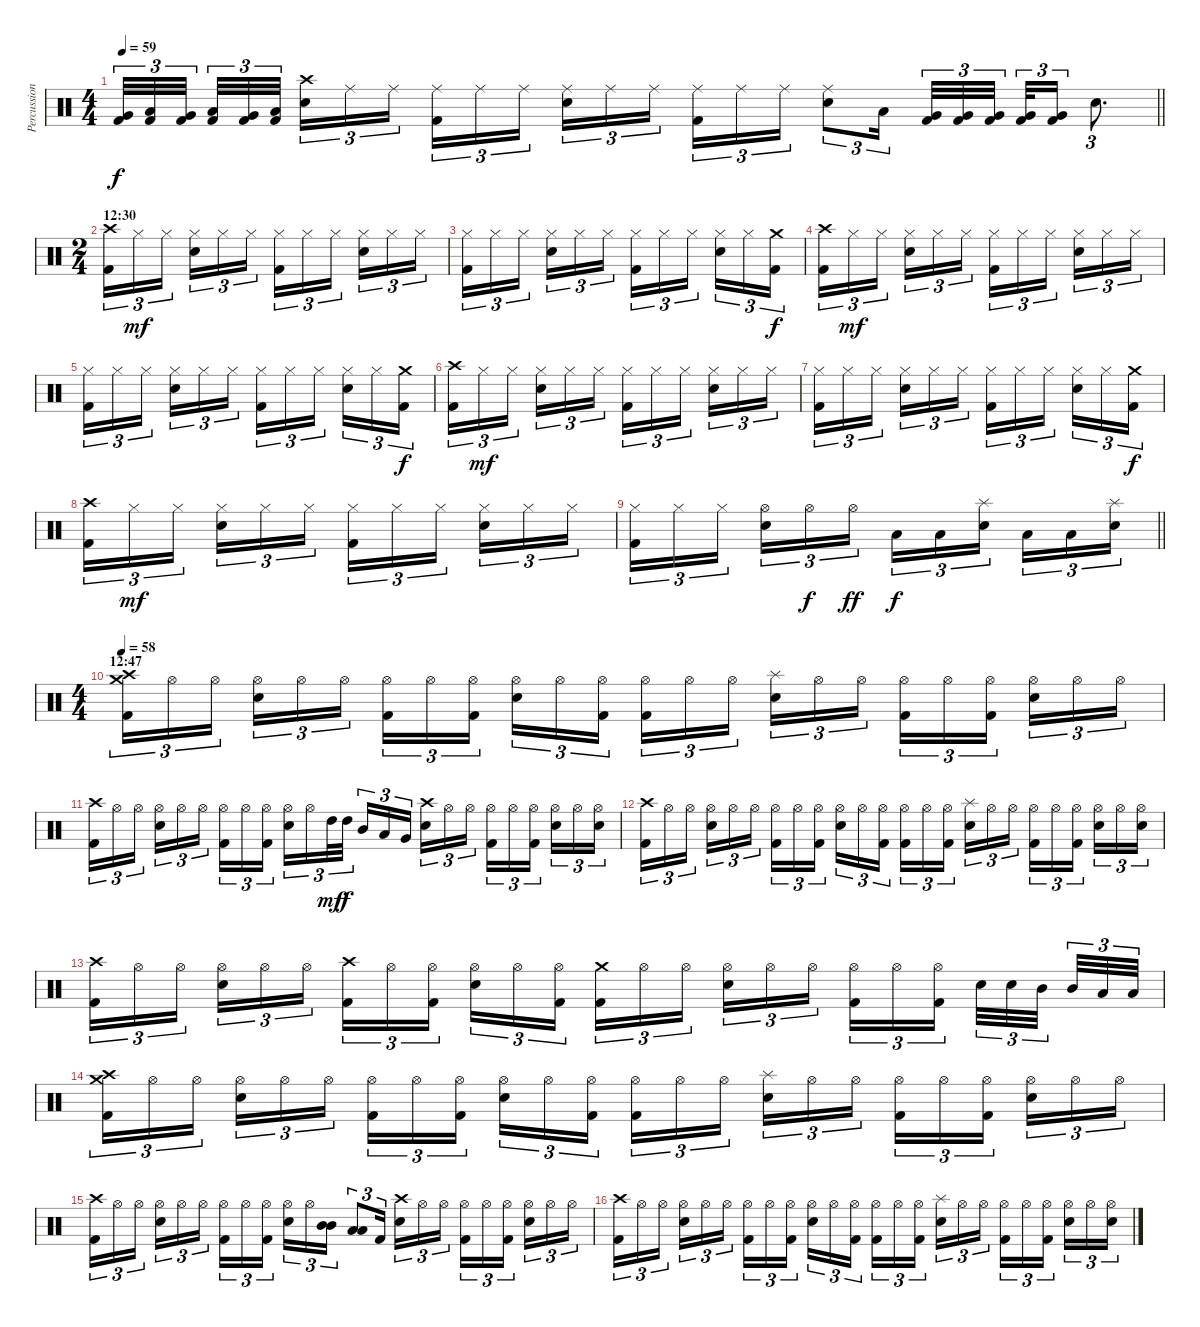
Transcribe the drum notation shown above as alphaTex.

\track ("Percussions" "Percussion") {instrument percussion}
\staff {score}
\articulation defaults
\ts (4 4)
\tempo 59
\clef neutral
\barLineRight lightlight
\ks c
("Very Low Tom (hit)" "Kick (hit) 2").32{tu (3 2) dy f} ("Low Floor Tom (hit)" "Kick (hit) 2").32{tu (3 2)} ("Very Low Tom (hit)" "Kick (hit) 2").32{tu (3 2) beam splitsecondary} ("Low Floor Tom (hit)" "Kick (hit) 2").32{tu (3 2)} ("Very Low Tom (hit)" "Kick (hit) 2").32{tu (3 2)} ("Low Floor Tom (hit)" "Kick (hit) 2").32{tu (3 2) beam splitsecondary} ("Crash high (hit)" "Snare (hit) 2").16{tu (3 2)} "Ride (middle)".16{tu (3 2)} "Ride (middle)".16{tu (3 2)} ("Ride (middle)" "Kick (hit) 2").16{tu (3 2)} "Ride (middle)".16{tu (3 2)} "Ride (middle)".16{tu (3 2) beam splitsecondary} ("Ride (middle)" "Snare (hit) 2").16{tu (3 2)} "Ride (middle)".16{tu (3 2)} "Ride (middle)".16{tu (3 2)} ("Ride (middle)" "Kick (hit) 2").16{tu (3 2)} "Ride (middle)".16{tu (3 2)} "Ride (middle)".16{tu (3 2)} ("Ride (middle)" "Snare (hit) 2").8{tu (3 2)} "Low Floor Tom (hit)".16{tu (3 2)} ("Very Low Tom (hit)" "Kick (hit) 2").32{tu (3 2)} ("Very Low Tom (hit)" "Kick (hit) 2").32{tu (3 2)} ("Very Low Tom (hit)" "Kick (hit) 2").32{tu (3 2) beam splitsecondary} ("Very Low Tom (hit)" "Kick (hit) 2").32{tu (3 2)} ("Very Low Tom (hit)" "Kick (hit) 2").16{tu (3 2)} "Snare (hit) 2".8{d tu (3 2)} |
\ts (2 4)
\section ("" "12:30")
("Crash high (hit)" "Kick (hit) 2").16{tu (3 2)} "Hi-Hat (closed)".16{tu (3 2) dy mf} "Hi-Hat (closed)".16{tu (3 2) beam splitsecondary} ("Hi-Hat (closed)" "Snare (hit) 2").16{tu (3 2)} "Hi-Hat (closed)".16{tu (3 2)} "Hi-Hat (closed)".16{tu (3 2)} ("Hi-Hat (closed)" "Kick (hit) 2").16{tu (3 2)} "Hi-Hat (closed)".16{tu (3 2)} "Hi-Hat (closed)".16{tu (3 2) beam splitsecondary} ("Hi-Hat (closed)" "Snare (hit) 2").16{tu (3 2)} "Hi-Hat (closed)".16{tu (3 2)} "Hi-Hat (closed)".16{tu (3 2)} |
("Hi-Hat (closed)" "Kick (hit) 2").16{tu (3 2)} "Hi-Hat (closed)".16{tu (3 2)} "Hi-Hat (closed)".16{tu (3 2) beam splitsecondary} ("Hi-Hat (closed)" "Snare (hit) 2").16{tu (3 2)} "Hi-Hat (closed)".16{tu (3 2)} "Hi-Hat (closed)".16{tu (3 2)} ("Hi-Hat (closed)" "Kick (hit) 2").16{tu (3 2)} "Hi-Hat (closed)".16{tu (3 2)} "Hi-Hat (closed)".16{tu (3 2) beam splitsecondary} ("Hi-Hat (closed)" "Snare (hit) 2").16{tu (3 2)} "Hi-Hat (closed)".16{tu (3 2)} ("Crash medium (hit)" "Kick (hit) 2").16{tu (3 2) dy f} |
("Crash high (hit)" "Kick (hit) 2").16{tu (3 2)} "Hi-Hat (closed)".16{tu (3 2) dy mf} "Hi-Hat (closed)".16{tu (3 2) beam splitsecondary} ("Hi-Hat (closed)" "Snare (hit) 2").16{tu (3 2)} "Hi-Hat (closed)".16{tu (3 2)} "Hi-Hat (closed)".16{tu (3 2)} ("Hi-Hat (closed)" "Kick (hit) 2").16{tu (3 2)} "Hi-Hat (closed)".16{tu (3 2)} "Hi-Hat (closed)".16{tu (3 2) beam splitsecondary} ("Hi-Hat (closed)" "Snare (hit) 2").16{tu (3 2)} "Hi-Hat (closed)".16{tu (3 2)} "Hi-Hat (closed)".16{tu (3 2)} |
("Hi-Hat (closed)" "Kick (hit) 2").16{tu (3 2)} "Hi-Hat (closed)".16{tu (3 2)} "Hi-Hat (closed)".16{tu (3 2) beam splitsecondary} ("Hi-Hat (closed)" "Snare (hit) 2").16{tu (3 2)} "Hi-Hat (closed)".16{tu (3 2)} "Hi-Hat (closed)".16{tu (3 2)} ("Hi-Hat (closed)" "Kick (hit) 2").16{tu (3 2)} "Hi-Hat (closed)".16{tu (3 2)} "Hi-Hat (closed)".16{tu (3 2) beam splitsecondary} ("Hi-Hat (closed)" "Snare (hit) 2").16{tu (3 2)} "Hi-Hat (closed)".16{tu (3 2)} ("Crash medium (hit)" "Kick (hit) 2").16{tu (3 2) dy f} |
("Crash high (hit)" "Kick (hit) 2").16{tu (3 2)} "Hi-Hat (closed)".16{tu (3 2) dy mf} "Hi-Hat (closed)".16{tu (3 2) beam splitsecondary} ("Hi-Hat (closed)" "Snare (hit) 2").16{tu (3 2)} "Hi-Hat (closed)".16{tu (3 2)} "Hi-Hat (closed)".16{tu (3 2)} ("Hi-Hat (closed)" "Kick (hit) 2").16{tu (3 2)} "Hi-Hat (closed)".16{tu (3 2)} "Hi-Hat (closed)".16{tu (3 2) beam splitsecondary} ("Hi-Hat (closed)" "Snare (hit) 2").16{tu (3 2)} "Hi-Hat (closed)".16{tu (3 2)} "Hi-Hat (closed)".16{tu (3 2)} |
("Hi-Hat (closed)" "Kick (hit) 2").16{tu (3 2)} "Hi-Hat (closed)".16{tu (3 2)} "Hi-Hat (closed)".16{tu (3 2) beam splitsecondary} ("Hi-Hat (closed)" "Snare (hit) 2").16{tu (3 2)} "Hi-Hat (closed)".16{tu (3 2)} "Hi-Hat (closed)".16{tu (3 2)} ("Hi-Hat (closed)" "Kick (hit) 2").16{tu (3 2)} "Hi-Hat (closed)".16{tu (3 2)} "Hi-Hat (closed)".16{tu (3 2) beam splitsecondary} ("Hi-Hat (closed)" "Snare (hit) 2").16{tu (3 2)} "Hi-Hat (closed)".16{tu (3 2)} ("Crash medium (hit)" "Kick (hit) 2").16{tu (3 2) dy f} |
("Crash high (hit)" "Kick (hit) 2").16{tu (3 2)} "Hi-Hat (closed)".16{tu (3 2) dy mf} "Hi-Hat (closed)".16{tu (3 2) beam splitsecondary} ("Hi-Hat (closed)" "Snare (hit) 2").16{tu (3 2)} "Hi-Hat (closed)".16{tu (3 2)} "Hi-Hat (closed)".16{tu (3 2)} ("Hi-Hat (closed)" "Kick (hit) 2").16{tu (3 2)} "Hi-Hat (closed)".16{tu (3 2)} "Hi-Hat (closed)".16{tu (3 2) beam splitsecondary} ("Hi-Hat (closed)" "Snare (hit) 2").16{tu (3 2)} "Hi-Hat (closed)".16{tu (3 2)} "Hi-Hat (closed)".16{tu (3 2)} |
\barLineRight lightlight
("Hi-Hat (closed)" "Kick (hit) 2").16{tu (3 2)} "Hi-Hat (closed)".16{tu (3 2)} "Hi-Hat (closed)".16{tu (3 2) beam splitsecondary} ("Hi-Hat (open)" "Snare (hit) 2").16{tu (3 2)} "Hi-Hat (open)".16{tu (3 2) dy f} "Hi-Hat (open)".16{tu (3 2) dy ff} "Low Floor Tom (hit)".16{tu (3 2) dy f} "Low Floor Tom (hit)".16{tu (3 2)} ("Splash (hit)" "Snare (hit) 2").16{tu (3 2) beam splitsecondary} "Low Floor Tom (hit)".16{tu (3 2)} "Low Floor Tom (hit)".16{tu (3 2)} ("Splash (hit)" "Snare (hit) 2").16{tu (3 2)} |
\ts (4 4)
\section ("" "12:47")
\tempo 58
("Crash medium (hit)" "Crash high (hit)" "Kick (hit) 2").16{tu (3 2)} "Hi-Hat (open)".16{tu (3 2)} "Hi-Hat (open)".16{tu (3 2) beam splitsecondary} ("Hi-Hat (open)" "Snare (hit) 2").16{tu (3 2)} "Hi-Hat (open)".16{tu (3 2)} "Hi-Hat (open)".16{tu (3 2)} ("Hi-Hat (open)" "Kick (hit) 2").16{tu (3 2)} "Hi-Hat (open)".16{tu (3 2)} ("Hi-Hat (open)" "Kick (hit) 2").16{tu (3 2) beam splitsecondary} ("Hi-Hat (open)" "Snare (hit) 2").16{tu (3 2)} "Hi-Hat (open)".16{tu (3 2)} ("Hi-Hat (open)" "Kick (hit) 2").16{tu (3 2)} ("Hi-Hat (open)" "Kick (hit) 2").16{tu (3 2)} "Hi-Hat (open)".16{tu (3 2)} "Hi-Hat (open)".16{tu (3 2) beam splitsecondary} ("Splash (hit)" "Snare (hit) 2").16{tu (3 2)} "Hi-Hat (open)".16{tu (3 2)} "Hi-Hat (open)".16{tu (3 2)} ("Hi-Hat (open)" "Kick (hit) 2").16{tu (3 2)} "Hi-Hat (open)".16{tu (3 2)} ("Hi-Hat (open)" "Kick (hit) 2").16{tu (3 2) beam splitsecondary} ("Hi-Hat (open)" "Snare (hit) 2").16{tu (3 2)} "Hi-Hat (open)".16{tu (3 2)} "Hi-Hat (open)".16{tu (3 2)} |
("Crash high (hit)" "Kick (hit) 2").16{tu (3 2)} "Hi-Hat (open)".16{tu (3 2)} "Hi-Hat (open)".16{tu (3 2) beam splitsecondary} ("Hi-Hat (open)" "Snare (hit) 2").16{tu (3 2)} "Hi-Hat (open)".16{tu (3 2)} "Hi-Hat (open)".16{tu (3 2)} ("Hi-Hat (open)" "Kick (hit) 2").16{tu (3 2)} "Hi-Hat (open)".16{tu (3 2)} ("Hi-Hat (open)" "Kick (hit) 2").16{tu (3 2) beam splitsecondary} ("Hi-Hat (open)" "Snare (hit) 2").16{tu (3 2)} "Hi-Hat (open)".16{tu (3 2)} "High Tom (hit)".32{tu (3 2) dy mf} "High Tom (hit)".32{tu (3 2) dy f} "Mid Tom (hit)".16{tu (3 2)} "Low Tom (hit)".16{tu (3 2)} "Very Low Tom (hit)".16{tu (3 2) beam splitsecondary} ("Crash high (hit)" "Snare (hit) 2").16{tu (3 2)} "Hi-Hat (open)".16{tu (3 2)} "Hi-Hat (open)".16{tu (3 2)} ("Hi-Hat (open)" "Kick (hit) 2").16{tu (3 2)} "Hi-Hat (open)".16{tu (3 2)} ("Hi-Hat (open)" "Kick (hit) 2").16{tu (3 2) beam splitsecondary} ("Hi-Hat (open)" "Snare (hit) 2").16{tu (3 2)} "Hi-Hat (open)".16{tu (3 2)} ("Hi-Hat (open)" "Snare (hit) 2").16{tu (3 2)} |
("Crash high (hit)" "Kick (hit) 2").16{tu (3 2)} "Hi-Hat (open)".16{tu (3 2)} "Hi-Hat (open)".16{tu (3 2) beam splitsecondary} ("Hi-Hat (open)" "Snare (hit) 2").16{tu (3 2)} "Hi-Hat (open)".16{tu (3 2)} "Hi-Hat (open)".16{tu (3 2)} ("Hi-Hat (open)" "Kick (hit) 2").16{tu (3 2)} "Hi-Hat (open)".16{tu (3 2)} ("Hi-Hat (open)" "Kick (hit) 2").16{tu (3 2) beam splitsecondary} ("Hi-Hat (open)" "Snare (hit) 2").16{tu (3 2)} "Hi-Hat (open)".16{tu (3 2)} ("Hi-Hat (open)" "Kick (hit) 2").16{tu (3 2)} ("Hi-Hat (open)" "Kick (hit) 2").16{tu (3 2)} "Hi-Hat (open)".16{tu (3 2)} ("Hi-Hat (open)" "Kick (hit) 2").16{tu (3 2) beam splitsecondary} ("Splash (hit)" "Snare (hit) 2").16{tu (3 2)} "Hi-Hat (open)".16{tu (3 2)} "Hi-Hat (open)".16{tu (3 2)} ("Hi-Hat (open)" "Kick (hit) 2").16{tu (3 2)} "Hi-Hat (open)".16{tu (3 2)} ("Hi-Hat (open)" "Kick (hit) 2").16{tu (3 2) beam splitsecondary} ("Hi-Hat (open)" "Snare (hit) 2").16{tu (3 2)} "Hi-Hat (open)".16{tu (3 2)} ("Hi-Hat (open)" "Snare (hit) 2").16{tu (3 2)} |
("Crash high (hit)" "Kick (hit) 2").16{tu (3 2)} "Hi-Hat (open)".16{tu (3 2)} "Hi-Hat (open)".16{tu (3 2) beam splitsecondary} ("Hi-Hat (open)" "Snare (hit) 2").16{tu (3 2)} "Hi-Hat (open)".16{tu (3 2)} "Hi-Hat (open)".16{tu (3 2)} ("Crash high (hit)" "Kick (hit) 2").16{tu (3 2)} "Hi-Hat (open)".16{tu (3 2)} ("Hi-Hat (open)" "Kick (hit) 2").16{tu (3 2) beam splitsecondary} ("Hi-Hat (open)" "Snare (hit) 2").16{tu (3 2)} "Hi-Hat (open)".16{tu (3 2)} ("Hi-Hat (open)" "Kick (hit) 2").16{tu (3 2)} ("Crash medium (hit)" "Kick (hit) 2").16{tu (3 2)} "Hi-Hat (open)".16{tu (3 2)} "Hi-Hat (open)".16{tu (3 2) beam splitsecondary} ("Hi-Hat (open)" "Snare (hit) 2").16{tu (3 2)} "Hi-Hat (open)".16{tu (3 2)} "Hi-Hat (open)".16{tu (3 2)} ("Hi-Hat (open)" "Kick (hit) 2").16{tu (3 2)} "Hi-Hat (open)".16{tu (3 2)} ("Hi-Hat (open)" "Kick (hit) 2").16{tu (3 2) beam splitsecondary} "Snare (hit) 2".32{tu (3 2)} "Snare (hit) 2".32{tu (3 2)} "Mid Tom (hit)".32{tu (3 2) beam splitsecondary} "Mid Tom (hit)".32{tu (3 2)} "Low Tom (hit)".32{tu (3 2)} "Low Tom (hit)".32{tu (3 2)} |
("Crash medium (hit)" "Crash high (hit)" "Kick (hit) 2").16{tu (3 2)} "Hi-Hat (open)".16{tu (3 2)} "Hi-Hat (open)".16{tu (3 2) beam splitsecondary} ("Hi-Hat (open)" "Snare (hit) 2").16{tu (3 2)} "Hi-Hat (open)".16{tu (3 2)} "Hi-Hat (open)".16{tu (3 2)} ("Hi-Hat (open)" "Kick (hit) 2").16{tu (3 2)} "Hi-Hat (open)".16{tu (3 2)} ("Hi-Hat (open)" "Kick (hit) 2").16{tu (3 2) beam splitsecondary} ("Hi-Hat (open)" "Snare (hit) 2").16{tu (3 2)} "Hi-Hat (open)".16{tu (3 2)} ("Hi-Hat (open)" "Kick (hit) 2").16{tu (3 2)} ("Hi-Hat (open)" "Kick (hit) 2").16{tu (3 2)} "Hi-Hat (open)".16{tu (3 2)} "Hi-Hat (open)".16{tu (3 2) beam splitsecondary} ("Splash (hit)" "Snare (hit) 2").16{tu (3 2)} "Hi-Hat (open)".16{tu (3 2)} "Hi-Hat (open)".16{tu (3 2)} ("Hi-Hat (open)" "Kick (hit) 2").16{tu (3 2)} "Hi-Hat (open)".16{tu (3 2)} ("Hi-Hat (open)" "Kick (hit) 2").16{tu (3 2) beam splitsecondary} ("Hi-Hat (open)" "Snare (hit) 2").16{tu (3 2)} "Hi-Hat (open)".16{tu (3 2)} "Hi-Hat (open)".16{tu (3 2)} |
("Crash high (hit)" "Kick (hit) 2").16{tu (3 2)} "Hi-Hat (open)".16{tu (3 2)} "Hi-Hat (open)".16{tu (3 2) beam splitsecondary} ("Hi-Hat (open)" "Snare (hit) 2").16{tu (3 2)} "Hi-Hat (open)".16{tu (3 2)} "Hi-Hat (open)".16{tu (3 2)} ("Hi-Hat (open)" "Kick (hit) 2").16{tu (3 2)} "Hi-Hat (open)".16{tu (3 2)} ("Hi-Hat (open)" "Kick (hit) 2").16{tu (3 2) beam splitsecondary} ("Hi-Hat (open)" "Snare (hit) 2").16{tu (3 2)} "Hi-Hat (open)".16{tu (3 2)} ("Mid Tom (hit)" "Mid Tom (hit)").16{tu (3 2)} ("Low Tom (hit)" "Low Tom (hit)").8{tu (3 2)} "Kick (hit) 2".16{tu (3 2) beam splitsecondary} ("Crash high (hit)" "Snare (hit) 2").16{tu (3 2)} "Hi-Hat (open)".16{tu (3 2)} "Hi-Hat (open)".16{tu (3 2)} ("Hi-Hat (open)" "Kick (hit) 2").16{tu (3 2)} "Hi-Hat (open)".16{tu (3 2)} ("Hi-Hat (open)" "Kick (hit) 2").16{tu (3 2) beam splitsecondary} ("Hi-Hat (open)" "Snare (hit) 2").16{tu (3 2)} "Hi-Hat (open)".16{tu (3 2)} "Hi-Hat (open)".16{tu (3 2)} |
("Crash high (hit)" "Kick (hit) 2").16{tu (3 2)} "Hi-Hat (open)".16{tu (3 2)} "Hi-Hat (open)".16{tu (3 2) beam splitsecondary} ("Hi-Hat (open)" "Snare (hit) 2").16{tu (3 2)} "Hi-Hat (open)".16{tu (3 2)} "Hi-Hat (open)".16{tu (3 2)} ("Hi-Hat (open)" "Kick (hit) 2").16{tu (3 2)} "Hi-Hat (open)".16{tu (3 2)} ("Hi-Hat (open)" "Kick (hit) 2").16{tu (3 2) beam splitsecondary} ("Hi-Hat (open)" "Snare (hit) 2").16{tu (3 2)} "Hi-Hat (open)".16{tu (3 2)} ("Hi-Hat (open)" "Kick (hit) 2").16{tu (3 2)} ("Hi-Hat (open)" "Kick (hit) 2").16{tu (3 2)} "Hi-Hat (open)".16{tu (3 2)} ("Hi-Hat (open)" "Kick (hit) 2").16{tu (3 2) beam splitsecondary} ("Splash (hit)" "Snare (hit) 2").16{tu (3 2)} "Hi-Hat (open)".16{tu (3 2)} "Hi-Hat (open)".16{tu (3 2)} ("Hi-Hat (open)" "Kick (hit) 2").16{tu (3 2)} "Hi-Hat (open)".16{tu (3 2)} ("Hi-Hat (open)" "Kick (hit) 2").16{tu (3 2) beam splitsecondary} ("Hi-Hat (open)" "Snare (hit) 2").16{tu (3 2)} "Hi-Hat (open)".16{tu (3 2)} ("Hi-Hat (open)" "Snare (hit) 2").16{tu (3 2)}
